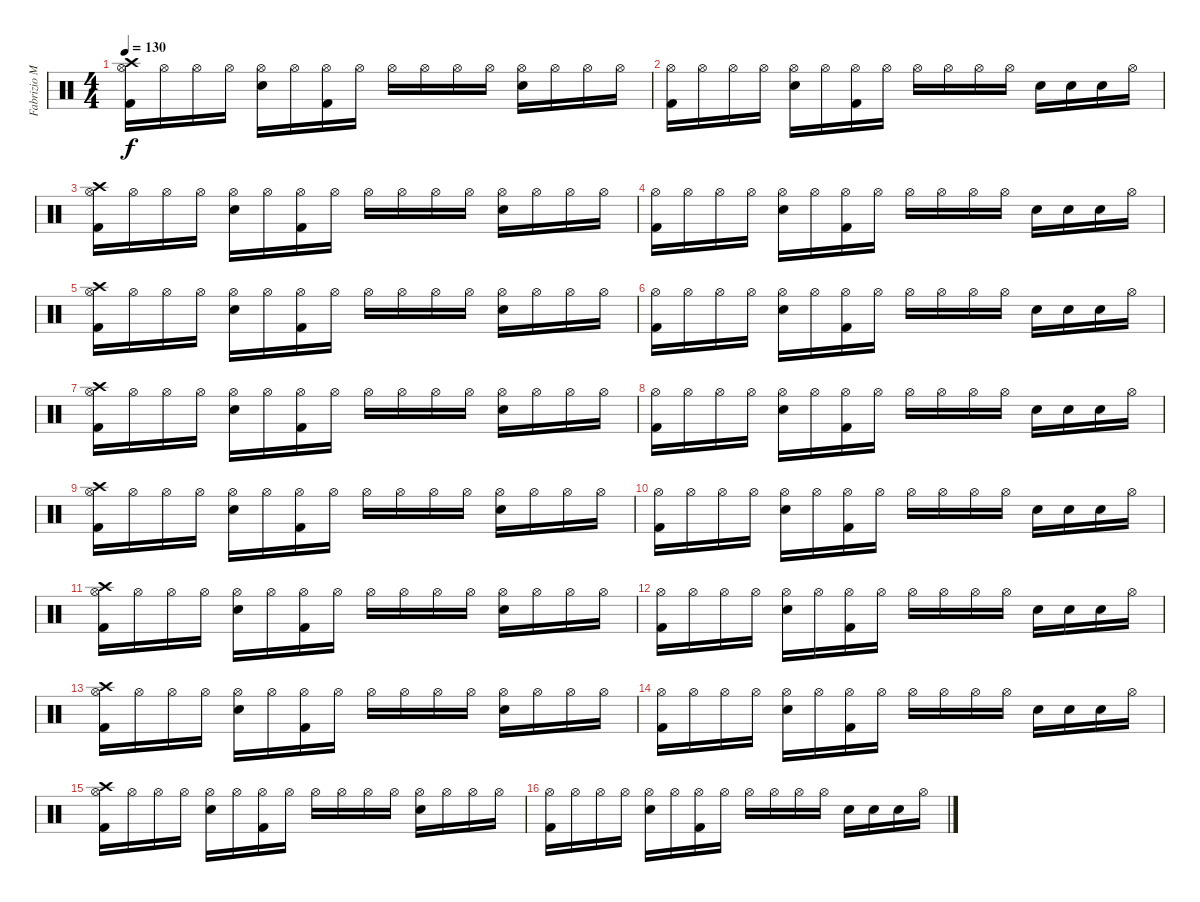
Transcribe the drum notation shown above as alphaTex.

\track ("Fabrizio Moretti" "Fabrizio M") {instrument percussion bank 127}
\staff {score}
\articulation defaults
\ts (4 4)
\tempo 130
\clef neutral
\ks c
("Crash high (hit)" "Hi-Hat (open)" "Kick (hit) 2").16{dy f} "Hi-Hat (open)".16 "Hi-Hat (open)".16 "Hi-Hat (open)".16 ("Hi-Hat (open)" "Electric Snare (hit)").16 "Hi-Hat (open)".16 ("Hi-Hat (open)" "Kick (hit) 2").16 "Hi-Hat (open)".16 "Hi-Hat (open)".16 "Hi-Hat (open)".16 "Hi-Hat (open)".16 "Hi-Hat (open)".16 ("Hi-Hat (open)" "Electric Snare (hit)").16 "Hi-Hat (open)".16 "Hi-Hat (open)".16 "Hi-Hat (open)".16 |
("Hi-Hat (open)" "Kick (hit) 2").16 "Hi-Hat (open)".16 "Hi-Hat (open)".16 "Hi-Hat (open)".16 ("Hi-Hat (open)" "Electric Snare (hit)").16 "Hi-Hat (open)".16 ("Hi-Hat (open)" "Kick (hit) 2").16 "Hi-Hat (open)".16 "Hi-Hat (open)".16 "Hi-Hat (open)".16 "Hi-Hat (open)".16 "Hi-Hat (open)".16 "Electric Snare (hit)".16 "Electric Snare (hit)".16 "Electric Snare (hit)".16 "Hi-Hat (open)".16 |
("Crash high (hit)" "Hi-Hat (open)" "Kick (hit) 2").16 "Hi-Hat (open)".16 "Hi-Hat (open)".16 "Hi-Hat (open)".16 ("Hi-Hat (open)" "Electric Snare (hit)").16 "Hi-Hat (open)".16 ("Hi-Hat (open)" "Kick (hit) 2").16 "Hi-Hat (open)".16 "Hi-Hat (open)".16 "Hi-Hat (open)".16 "Hi-Hat (open)".16 "Hi-Hat (open)".16 ("Hi-Hat (open)" "Electric Snare (hit)").16 "Hi-Hat (open)".16 "Hi-Hat (open)".16 "Hi-Hat (open)".16 |
("Hi-Hat (open)" "Kick (hit) 2").16 "Hi-Hat (open)".16 "Hi-Hat (open)".16 "Hi-Hat (open)".16 ("Hi-Hat (open)" "Electric Snare (hit)").16 "Hi-Hat (open)".16 ("Hi-Hat (open)" "Kick (hit) 2").16 "Hi-Hat (open)".16 "Hi-Hat (open)".16 "Hi-Hat (open)".16 "Hi-Hat (open)".16 "Hi-Hat (open)".16 "Electric Snare (hit)".16 "Electric Snare (hit)".16 "Electric Snare (hit)".16 "Hi-Hat (open)".16 |
("Crash high (hit)" "Hi-Hat (open)" "Kick (hit) 2").16 "Hi-Hat (open)".16 "Hi-Hat (open)".16 "Hi-Hat (open)".16 ("Hi-Hat (open)" "Electric Snare (hit)").16 "Hi-Hat (open)".16 ("Hi-Hat (open)" "Kick (hit) 2").16 "Hi-Hat (open)".16 "Hi-Hat (open)".16 "Hi-Hat (open)".16 "Hi-Hat (open)".16 "Hi-Hat (open)".16 ("Hi-Hat (open)" "Electric Snare (hit)").16 "Hi-Hat (open)".16 "Hi-Hat (open)".16 "Hi-Hat (open)".16 |
("Hi-Hat (open)" "Kick (hit) 2").16 "Hi-Hat (open)".16 "Hi-Hat (open)".16 "Hi-Hat (open)".16 ("Hi-Hat (open)" "Electric Snare (hit)").16 "Hi-Hat (open)".16 ("Hi-Hat (open)" "Kick (hit) 2").16 "Hi-Hat (open)".16 "Hi-Hat (open)".16 "Hi-Hat (open)".16 "Hi-Hat (open)".16 "Hi-Hat (open)".16 "Electric Snare (hit)".16 "Electric Snare (hit)".16 "Electric Snare (hit)".16 "Hi-Hat (open)".16 |
("Crash high (hit)" "Hi-Hat (open)" "Kick (hit) 2").16 "Hi-Hat (open)".16 "Hi-Hat (open)".16 "Hi-Hat (open)".16 ("Hi-Hat (open)" "Electric Snare (hit)").16 "Hi-Hat (open)".16 ("Hi-Hat (open)" "Kick (hit) 2").16 "Hi-Hat (open)".16 "Hi-Hat (open)".16 "Hi-Hat (open)".16 "Hi-Hat (open)".16 "Hi-Hat (open)".16 ("Hi-Hat (open)" "Electric Snare (hit)").16 "Hi-Hat (open)".16 "Hi-Hat (open)".16 "Hi-Hat (open)".16 |
("Hi-Hat (open)" "Kick (hit) 2").16 "Hi-Hat (open)".16 "Hi-Hat (open)".16 "Hi-Hat (open)".16 ("Hi-Hat (open)" "Electric Snare (hit)").16 "Hi-Hat (open)".16 ("Hi-Hat (open)" "Kick (hit) 2").16 "Hi-Hat (open)".16 "Hi-Hat (open)".16 "Hi-Hat (open)".16 "Hi-Hat (open)".16 "Hi-Hat (open)".16 "Electric Snare (hit)".16 "Electric Snare (hit)".16 "Electric Snare (hit)".16 "Hi-Hat (open)".16 |
("Crash high (hit)" "Hi-Hat (open)" "Kick (hit) 2").16 "Hi-Hat (open)".16 "Hi-Hat (open)".16 "Hi-Hat (open)".16 ("Hi-Hat (open)" "Electric Snare (hit)").16 "Hi-Hat (open)".16 ("Hi-Hat (open)" "Kick (hit) 2").16 "Hi-Hat (open)".16 "Hi-Hat (open)".16 "Hi-Hat (open)".16 "Hi-Hat (open)".16 "Hi-Hat (open)".16 ("Hi-Hat (open)" "Electric Snare (hit)").16 "Hi-Hat (open)".16 "Hi-Hat (open)".16 "Hi-Hat (open)".16 |
("Hi-Hat (open)" "Kick (hit) 2").16 "Hi-Hat (open)".16 "Hi-Hat (open)".16 "Hi-Hat (open)".16 ("Hi-Hat (open)" "Electric Snare (hit)").16 "Hi-Hat (open)".16 ("Hi-Hat (open)" "Kick (hit) 2").16 "Hi-Hat (open)".16 "Hi-Hat (open)".16 "Hi-Hat (open)".16 "Hi-Hat (open)".16 "Hi-Hat (open)".16 "Electric Snare (hit)".16 "Electric Snare (hit)".16 "Electric Snare (hit)".16 "Hi-Hat (open)".16 |
("Crash high (hit)" "Hi-Hat (open)" "Kick (hit) 2").16 "Hi-Hat (open)".16 "Hi-Hat (open)".16 "Hi-Hat (open)".16 ("Hi-Hat (open)" "Electric Snare (hit)").16 "Hi-Hat (open)".16 ("Hi-Hat (open)" "Kick (hit) 2").16 "Hi-Hat (open)".16 "Hi-Hat (open)".16 "Hi-Hat (open)".16 "Hi-Hat (open)".16 "Hi-Hat (open)".16 ("Hi-Hat (open)" "Electric Snare (hit)").16 "Hi-Hat (open)".16 "Hi-Hat (open)".16 "Hi-Hat (open)".16 |
("Hi-Hat (open)" "Kick (hit) 2").16 "Hi-Hat (open)".16 "Hi-Hat (open)".16 "Hi-Hat (open)".16 ("Hi-Hat (open)" "Electric Snare (hit)").16 "Hi-Hat (open)".16 ("Hi-Hat (open)" "Kick (hit) 2").16 "Hi-Hat (open)".16 "Hi-Hat (open)".16 "Hi-Hat (open)".16 "Hi-Hat (open)".16 "Hi-Hat (open)".16 "Electric Snare (hit)".16 "Electric Snare (hit)".16 "Electric Snare (hit)".16 "Hi-Hat (open)".16 |
("Crash high (hit)" "Hi-Hat (open)" "Kick (hit) 2").16 "Hi-Hat (open)".16 "Hi-Hat (open)".16 "Hi-Hat (open)".16 ("Hi-Hat (open)" "Electric Snare (hit)").16 "Hi-Hat (open)".16 ("Hi-Hat (open)" "Kick (hit) 2").16 "Hi-Hat (open)".16 "Hi-Hat (open)".16 "Hi-Hat (open)".16 "Hi-Hat (open)".16 "Hi-Hat (open)".16 ("Hi-Hat (open)" "Electric Snare (hit)").16 "Hi-Hat (open)".16 "Hi-Hat (open)".16 "Hi-Hat (open)".16 |
("Hi-Hat (open)" "Kick (hit) 2").16 "Hi-Hat (open)".16 "Hi-Hat (open)".16 "Hi-Hat (open)".16 ("Hi-Hat (open)" "Electric Snare (hit)").16 "Hi-Hat (open)".16 ("Hi-Hat (open)" "Kick (hit) 2").16 "Hi-Hat (open)".16 "Hi-Hat (open)".16 "Hi-Hat (open)".16 "Hi-Hat (open)".16 "Hi-Hat (open)".16 "Electric Snare (hit)".16 "Electric Snare (hit)".16 "Electric Snare (hit)".16 "Hi-Hat (open)".16 |
("Crash high (hit)" "Hi-Hat (open)" "Kick (hit) 2").16 "Hi-Hat (open)".16 "Hi-Hat (open)".16 "Hi-Hat (open)".16 ("Hi-Hat (open)" "Electric Snare (hit)").16 "Hi-Hat (open)".16 ("Hi-Hat (open)" "Kick (hit) 2").16 "Hi-Hat (open)".16 "Hi-Hat (open)".16 "Hi-Hat (open)".16 "Hi-Hat (open)".16 "Hi-Hat (open)".16 ("Hi-Hat (open)" "Electric Snare (hit)").16 "Hi-Hat (open)".16 "Hi-Hat (open)".16 "Hi-Hat (open)".16 |
("Hi-Hat (open)" "Kick (hit) 2").16 "Hi-Hat (open)".16 "Hi-Hat (open)".16 "Hi-Hat (open)".16 ("Hi-Hat (open)" "Electric Snare (hit)").16 "Hi-Hat (open)".16 ("Hi-Hat (open)" "Kick (hit) 2").16 "Hi-Hat (open)".16 "Hi-Hat (open)".16 "Hi-Hat (open)".16 "Hi-Hat (open)".16 "Hi-Hat (open)".16 "Electric Snare (hit)".16 "Electric Snare (hit)".16 "Electric Snare (hit)".16 "Hi-Hat (open)".16
